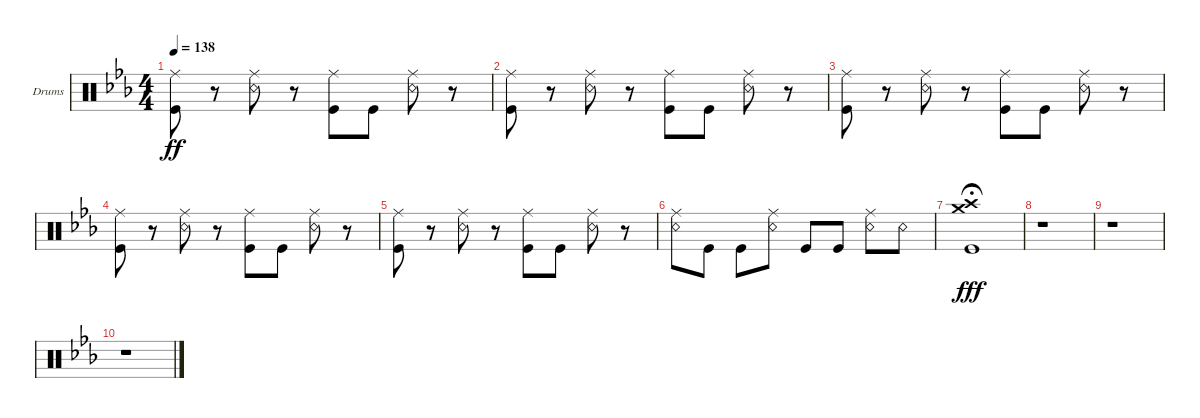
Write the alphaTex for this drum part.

\defaultSystemsLayout 4
\bracketExtendMode groupsimilarinstruments
\firstSystemTrackNameOrientation horizontal
\otherSystemsTrackNameOrientation horizontal
\track ("Drums" "Drums") {instrument percussion}
\staff {score}
\articulation defaults
\ts (4 4)
\tempo 138
\clef neutral
\ks eb
("Kick (hit)" "Ride (middle)").8{dy ff} r.8 ("Ride (middle)" "Snare (rim shot)").8 r.8 ("Ride (middle)" "Kick (hit)").8 "Kick (hit)".8 ("Ride (middle)" "Snare (rim shot)").8 r.8 |
("Kick (hit)" "Ride (middle)").8 r.8 ("Ride (middle)" "Snare (rim shot)").8 r.8 ("Ride (middle)" "Kick (hit)").8 "Kick (hit)".8 ("Ride (middle)" "Snare (rim shot)").8 r.8 |
("Kick (hit)" "Ride (middle)").8 r.8 ("Ride (middle)" "Snare (rim shot)").8 r.8 ("Ride (middle)" "Kick (hit)").8 "Kick (hit)".8 ("Ride (middle)" "Snare (rim shot)").8 r.8 |
("Kick (hit)" "Ride (middle)").8 r.8 ("Ride (middle)" "Snare (rim shot)").8 r.8 ("Ride (middle)" "Kick (hit)").8 "Kick (hit)".8 ("Ride (middle)" "Snare (rim shot)").8 r.8 |
("Kick (hit)" "Ride (middle)").8 r.8 ("Ride (middle)" "Snare (rim shot)").8 r.8 ("Ride (middle)" "Kick (hit)").8 "Kick (hit)".8 ("Ride (middle)" "Snare (rim shot)").8 r.8 |
("Ride (middle)" "Snare (rim shot)").8 "Kick (hit)".8 "Kick (hit)".8 ("Snare (rim shot)" "Ride (middle)").8 "Kick (hit)".8 "Kick (hit)".8 ("Ride (middle)" "Snare (rim shot)").8 "Snare (rim shot)".8 |
("Kick (hit)" "Crash medium (hit)" "Crash high (hit)").1{dy fff fermata (medium 1)} |
r.1 |
r.1 |
r.1
